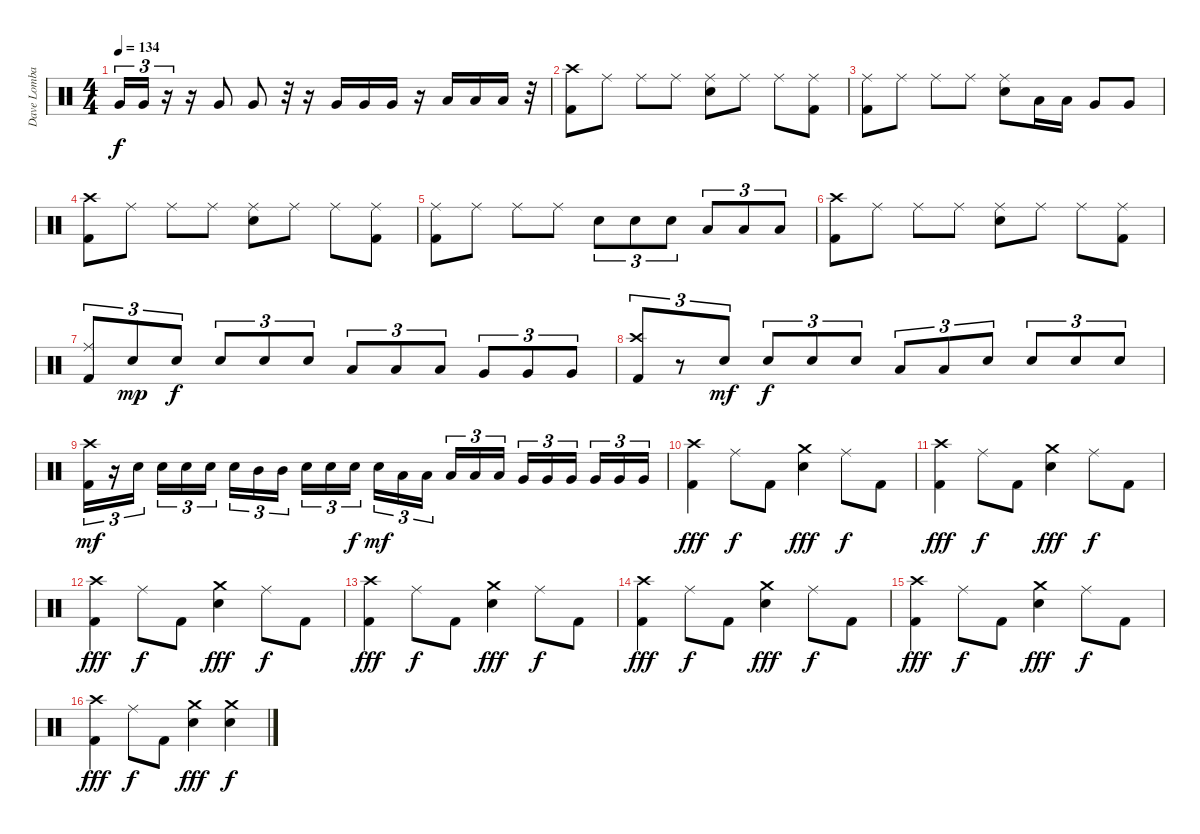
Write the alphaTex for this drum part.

\track ("Dave Lombardo (Drums)" "Dave Lomba") {instrument percussion}
\staff {score}
\articulation defaults
\ts (4 4)
\tempo 134
\clef neutral
\ks c "Very Low Tom (hit)".16{tu (3 2) dy f} "Very Low Tom (hit)".16{tu (3 2)}
r.16{tu (3 2)} r.16 "Very Low Tom (hit)".8 "Very Low Tom (hit)".8 r.32 r.16 "Very Low Tom (hit)".16 "Very Low Tom (hit)".16 "Very Low Tom (hit)".16 r.16 "Low Floor Tom (hit)".16 "Low Floor Tom (hit)".16 "Low Floor Tom (hit)".16 r.32 |
("Crash high (hit)" "Kick (hit) 2").8 "Ride (middle)".8 "Ride (middle)".8 "Ride (middle)".8 ("Ride (middle)" "Electric Snare (hit)").8 "Ride (middle)".8 "Ride (middle)".8 ("Ride (middle)" "Kick (hit) 2").8 |
("Ride (middle)" "Kick (hit) 2").8 "Ride (middle)".8 "Ride (middle)".8 "Ride (middle)".8 ("Ride (middle)" "Electric Snare (hit)").8 "Low Tom (hit)".16 "Low Tom (hit)".16 "Very Low Tom (hit)".8 "Very Low Tom (hit)".8 |
("Crash high (hit)" "Kick (hit) 2").8 "Ride (middle)".8 "Ride (middle)".8 "Ride (middle)".8 ("Ride (middle)" "Electric Snare (hit)").8 "Ride (middle)".8 "Ride (middle)".8 ("Ride (middle)" "Kick (hit) 2").8 |
("Ride (middle)" "Kick (hit) 2").8 "Ride (middle)".8 "Ride (middle)".8 "Ride (middle)".8 "Electric Snare (hit)".8{tu (3 2)} "Electric Snare (hit)".8{tu (3 2)} "Electric Snare (hit)".8{tu (3 2)} "Low Tom (hit)".8{tu (3 2)} "Low Tom (hit)".8{tu (3 2)} "Low Tom (hit)".8{tu (3 2)} |
("Crash high (hit)" "Kick (hit) 2").8 "Ride (middle)".8 "Ride (middle)".8 "Ride (middle)".8 ("Ride (middle)" "Electric Snare (hit)").8 "Ride (middle)".8 "Ride (middle)".8 ("Ride (middle)" "Kick (hit) 2").8 |
("Ride (middle)" "Kick (hit) 2").8{tu (3 2) beam Up} "Electric Snare (hit)".8{tu (3 2) dy mp beam Up} "Electric Snare (hit)".8{tu (3 2) dy f beam Up} "Electric Snare (hit)".8{tu (3 2) beam Up} "Electric Snare (hit)".8{tu (3 2) beam Up} "Electric Snare (hit)".8{tu (3 2) beam Up} "Low Tom (hit)".8{tu (3 2)} "Low Tom (hit)".8{tu (3 2)} "Low Tom (hit)".8{tu (3 2)} "Very Low Tom (hit)".8{tu (3 2)} "Very Low Tom (hit)".8{tu (3 2)} "Very Low Tom (hit)".8{tu (3 2)} |
("Crash high (hit)" "Kick (hit) 2").8{tu (3 2) beam Up} r.8{tu (3 2) beam Up} "Electric Snare (hit)".8{tu (3 2) dy mf beam Up} "Electric Snare (hit)".8{tu (3 2) dy f beam Up} "Electric Snare (hit)".8{tu (3 2) beam Up} "Electric Snare (hit)".8{tu (3 2) beam Up} "Low Tom (hit)".8{tu (3 2) beam Up} "Low Tom (hit)".8{tu (3 2) beam Up} "Electric Snare (hit)".8{tu (3 2) beam Up} "Electric Snare (hit)".8{tu (3 2) beam Up} "Electric Snare (hit)".8{tu (3 2) beam Up} "Electric Snare (hit)".8{tu (3 2) beam Up} |
("Crash high (hit)" "Kick (hit) 2").16{tu (3 2) dy mf} r.16{tu (3 2)} "Electric Snare (hit)".16{tu (3 2) beam splitsecondary} "Electric Snare (hit)".16{tu (3 2)} "Electric Snare (hit)".16{tu (3 2)} "Electric Snare (hit)".16{tu (3 2)} "Electric Snare (hit)".16{tu (3 2)} "Mid Tom (hit)".16{tu (3 2)} "Mid Tom (hit)".16{tu (3 2) beam splitsecondary} "Electric Snare (hit)".16{tu (3 2)} "Electric Snare (hit)".16{tu (3 2)} "Electric Snare (hit)".16{tu (3 2) dy f} "Electric Snare (hit)".16{tu (3 2) dy mf} "Low Tom (hit)".16{tu (3 2)} "Low Tom (hit)".16{tu (3 2) beam splitsecondary} "Low Tom (hit)".16{tu (3 2)} "Low Tom (hit)".16{tu (3 2)} "Low Tom (hit)".16{tu (3 2)} "Very Low Tom (hit)".16{tu (3 2)} "Very Low Tom (hit)".16{tu (3 2)} "Very Low Tom (hit)".16{tu (3 2) beam splitsecondary} "Very Low Tom (hit)".16{tu (3 2)} "Very Low Tom (hit)".16{tu (3 2)} "Very Low Tom (hit)".16{tu (3 2)} |
("Crash high (hit)" "Kick (hit) 2").4{dy fff} "Ride (middle)".8{dy f} "Kick (hit) 2".8 ("Crash medium (hit)" "Electric Snare (hit)").4{dy fff} "Ride (middle)".8{dy f} "Kick (hit) 2".8 |
("Crash high (hit)" "Kick (hit) 2").4{dy fff} "Ride (middle)".8{dy f} "Kick (hit) 2".8 ("Crash medium (hit)" "Electric Snare (hit)").4{dy fff} "Ride (middle)".8{dy f} "Kick (hit) 2".8 |
("Crash high (hit)" "Kick (hit) 2").4{dy fff} "Ride (middle)".8{dy f} "Kick (hit) 2".8 ("Crash medium (hit)" "Electric Snare (hit)").4{dy fff} "Ride (middle)".8{dy f} "Kick (hit) 2".8 |
("Crash high (hit)" "Kick (hit) 2").4{dy fff} "Ride (middle)".8{dy f} "Kick (hit) 2".8 ("Crash medium (hit)" "Electric Snare (hit)").4{dy fff} "Ride (middle)".8{dy f} "Kick (hit) 2".8 |
("Crash high (hit)" "Kick (hit) 2").4{dy fff} "Ride (middle)".8{dy f} "Kick (hit) 2".8 ("Crash medium (hit)" "Electric Snare (hit)").4{dy fff} "Ride (middle)".8{dy f} "Kick (hit) 2".8 |
("Crash high (hit)" "Kick (hit) 2").4{dy fff} "Ride (middle)".8{dy f} "Kick (hit) 2".8 ("Crash medium (hit)" "Electric Snare (hit)").4{dy fff} "Ride (middle)".8{dy f} "Kick (hit) 2".8 |
("Crash high (hit)" "Kick (hit) 2").4{dy fff} "Ride (middle)".8{dy f} "Kick (hit) 2".8 ("Crash medium (hit)" "Electric Snare (hit)").4{dy fff} ("Crash medium (hit)" "Electric Snare (hit)").4{dy f}
